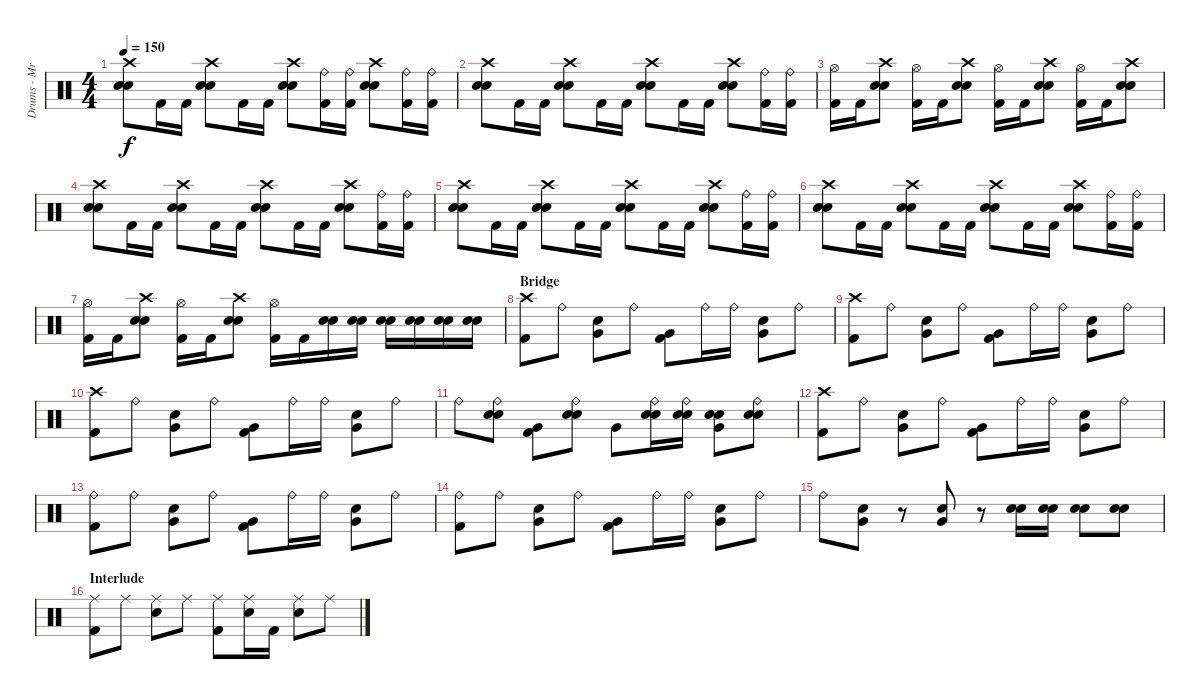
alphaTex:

\track ("Drums - Mr. Beller, Thomas" "Drums - Mr") {instrument percussion}
\staff {score}
\articulation defaults
\ts (4 4)
\tempo 150
\clef neutral
\ks c
("Crash high (hit)" "Electric Snare (hit)" "Electric Snare (hit)").8{dy f} "Kick (hit) 2".16 "Kick (hit) 2".16 ("Crash high (hit)" "Electric Snare (hit)" "Electric Snare (hit)").8 "Kick (hit) 2".16 "Kick (hit) 2".16 ("Crash high (hit)" "Electric Snare (hit)" "Electric Snare (hit)").8 ("Ride (bell)" "Kick (hit) 2").16 ("Ride (bell)" "Kick (hit) 2").16 ("Crash high (hit)" "Electric Snare (hit)" "Electric Snare (hit)").8 ("Ride (bell)" "Kick (hit) 2").16 ("Ride (bell)" "Kick (hit) 2").16 |
("Crash high (hit)" "Electric Snare (hit)" "Electric Snare (hit)").8 "Kick (hit) 2".16 "Kick (hit) 2".16 ("Crash high (hit)" "Electric Snare (hit)" "Electric Snare (hit)").8 "Kick (hit) 2".16 "Kick (hit) 2".16 ("Crash high (hit)" "Electric Snare (hit)" "Electric Snare (hit)").8 "Kick (hit) 2".16 "Kick (hit) 2".16 ("Crash high (hit)" "Electric Snare (hit)" "Electric Snare (hit)").8 ("Ride (bell)" "Kick (hit) 2").16 ("Ride (bell)" "Kick (hit) 2").16 |
("Hi-Hat (open)" "Kick (hit) 2").16 "Kick (hit) 2".16 ("Crash high (hit)" "Electric Snare (hit)" "Electric Snare (hit)").8 ("Hi-Hat (open)" "Kick (hit) 2").16 "Kick (hit) 2".16 ("Crash high (hit)" "Electric Snare (hit)" "Electric Snare (hit)").8 ("Hi-Hat (open)" "Kick (hit) 2").16 "Kick (hit) 2".16 ("Crash high (hit)" "Electric Snare (hit)" "Electric Snare (hit)").8 ("Hi-Hat (open)" "Kick (hit) 2").16 "Kick (hit) 2".16 ("Crash high (hit)" "Electric Snare (hit)" "Electric Snare (hit)").8 |
("Crash high (hit)" "Electric Snare (hit)" "Electric Snare (hit)").8 "Kick (hit) 2".16 "Kick (hit) 2".16 ("Crash high (hit)" "Electric Snare (hit)" "Electric Snare (hit)").8 "Kick (hit) 2".16 "Kick (hit) 2".16 ("Crash high (hit)" "Electric Snare (hit)" "Electric Snare (hit)").8 "Kick (hit) 2".16 "Kick (hit) 2".16 ("Crash high (hit)" "Electric Snare (hit)" "Electric Snare (hit)").8 ("Ride (bell)" "Kick (hit) 2").16 ("Ride (bell)" "Kick (hit) 2").16 |
("Crash high (hit)" "Electric Snare (hit)" "Electric Snare (hit)").8 "Kick (hit) 2".16 "Kick (hit) 2".16 ("Crash high (hit)" "Electric Snare (hit)" "Electric Snare (hit)").8 "Kick (hit) 2".16 "Kick (hit) 2".16 ("Crash high (hit)" "Electric Snare (hit)" "Electric Snare (hit)").8 "Kick (hit) 2".16 "Kick (hit) 2".16 ("Crash high (hit)" "Electric Snare (hit)" "Electric Snare (hit)").8 ("Ride (bell)" "Kick (hit) 2").16 ("Ride (bell)" "Kick (hit) 2").16 |
("Crash high (hit)" "Electric Snare (hit)" "Electric Snare (hit)").8 "Kick (hit) 2".16 "Kick (hit) 2".16 ("Crash high (hit)" "Electric Snare (hit)" "Electric Snare (hit)").8 "Kick (hit) 2".16 "Kick (hit) 2".16 ("Crash high (hit)" "Electric Snare (hit)" "Electric Snare (hit)").8 "Kick (hit) 2".16 "Kick (hit) 2".16 ("Crash high (hit)" "Electric Snare (hit)" "Electric Snare (hit)").8 ("Ride (bell)" "Kick (hit) 2").16 ("Ride (bell)" "Kick (hit) 2").16 |
("Hi-Hat (open)" "Kick (hit) 2").16 "Kick (hit) 2".16 ("Crash high (hit)" "Electric Snare (hit)" "Electric Snare (hit)").8 ("Hi-Hat (open)" "Kick (hit) 2").16 "Kick (hit) 2".16 ("Crash high (hit)" "Electric Snare (hit)" "Electric Snare (hit)").8 ("Hi-Hat (open)" "Kick (hit) 2").16 "Kick (hit) 2".16 ("Electric Snare (hit)" "Electric Snare (hit)").16 ("Electric Snare (hit)" "Electric Snare (hit)").16 ("Electric Snare (hit)" "Electric Snare (hit)").16 ("Electric Snare (hit)" "Electric Snare (hit)").16 ("Electric Snare (hit)" "Electric Snare (hit)").16 ("Electric Snare (hit)" "Electric Snare (hit)").16 |
\section ("" "Bridge")
("Crash high (hit)" "Kick (hit) 2").8 "Ride (bell)".8 ("Very Low Tom (hit)" "Electric Snare (hit)").8 "Ride (bell)".8 ("Very Low Tom (hit)" "Kick (hit) 2").8 "Ride (bell)".16 "Ride (bell)".16 ("Very Low Tom (hit)" "Electric Snare (hit)").8 "Ride (bell)".8 |
("Crash high (hit)" "Kick (hit) 2").8 "Ride (bell)".8 ("Very Low Tom (hit)" "Electric Snare (hit)").8 "Ride (bell)".8 ("Very Low Tom (hit)" "Kick (hit) 2").8 "Ride (bell)".16 "Ride (bell)".16 ("Very Low Tom (hit)" "Electric Snare (hit)").8 "Ride (bell)".8 |
("Crash high (hit)" "Kick (hit) 2").8 "Ride (bell)".8 ("Very Low Tom (hit)" "Electric Snare (hit)").8 "Ride (bell)".8 ("Very Low Tom (hit)" "Kick (hit) 2").8 "Ride (bell)".16 "Ride (bell)".16 ("Very Low Tom (hit)" "Electric Snare (hit)").8 "Ride (bell)".8 |
"Ride (bell)".8 ("Ride (bell)" "Electric Snare (hit)" "Electric Snare (hit)").8 ("Very Low Tom (hit)" "Kick (hit) 2").8 ("Ride (bell)" "Electric Snare (hit)" "Electric Snare (hit)").8 "Very Low Tom (hit)".8 ("Ride (bell)" "Electric Snare (hit)" "Electric Snare (hit)").16 ("Ride (bell)" "Electric Snare (hit)" "Electric Snare (hit)").16 ("Very Low Tom (hit)" "Electric Snare (hit)" "Electric Snare (hit)").8 ("Ride (bell)" "Electric Snare (hit)" "Electric Snare (hit)").8 |
("Crash high (hit)" "Kick (hit) 2").8 "Ride (bell)".8 ("Very Low Tom (hit)" "Electric Snare (hit)").8 "Ride (bell)".8 ("Very Low Tom (hit)" "Kick (hit) 2").8 "Ride (bell)".16 "Ride (bell)".16 ("Very Low Tom (hit)" "Electric Snare (hit)").8 "Ride (bell)".8 |
("Ride (bell)" "Kick (hit) 2").8 "Ride (bell)".8 ("Very Low Tom (hit)" "Electric Snare (hit)").8 "Ride (bell)".8 ("Very Low Tom (hit)" "Kick (hit) 2").8 "Ride (bell)".16 "Ride (bell)".16 ("Very Low Tom (hit)" "Electric Snare (hit)").8 "Ride (bell)".8 |
("Ride (bell)" "Kick (hit) 2").8 "Ride (bell)".8 ("Very Low Tom (hit)" "Electric Snare (hit)").8 "Ride (bell)".8 ("Very Low Tom (hit)" "Kick (hit) 2").8 "Ride (bell)".16 "Ride (bell)".16 ("Very Low Tom (hit)" "Electric Snare (hit)").8 "Ride (bell)".8 |
"Ride (bell)".8 ("Very Low Tom (hit)" "Electric Snare (hit)").8 r.8 ("Very Low Tom (hit)" "Electric Snare (hit)").8 r.8 ("Electric Snare (hit)" "Electric Snare (hit)").16 ("Electric Snare (hit)" "Electric Snare (hit)").16 ("Electric Snare (hit)" "Electric Snare (hit)").8 ("Electric Snare (hit)" "Electric Snare (hit)").8 |
\section ("" "Interlude")
("Ride (middle)" "Kick (hit) 2").8 "Ride (middle)".8 ("Ride (middle)" "Electric Snare (hit)").8 "Ride (middle)".8 ("Ride (middle)" "Kick (hit) 2").8 ("Ride (middle)" "Electric Snare (hit)").16 "Kick (hit) 2".16 ("Ride (middle)" "Electric Snare (hit)").8 "Ride (middle)".8
